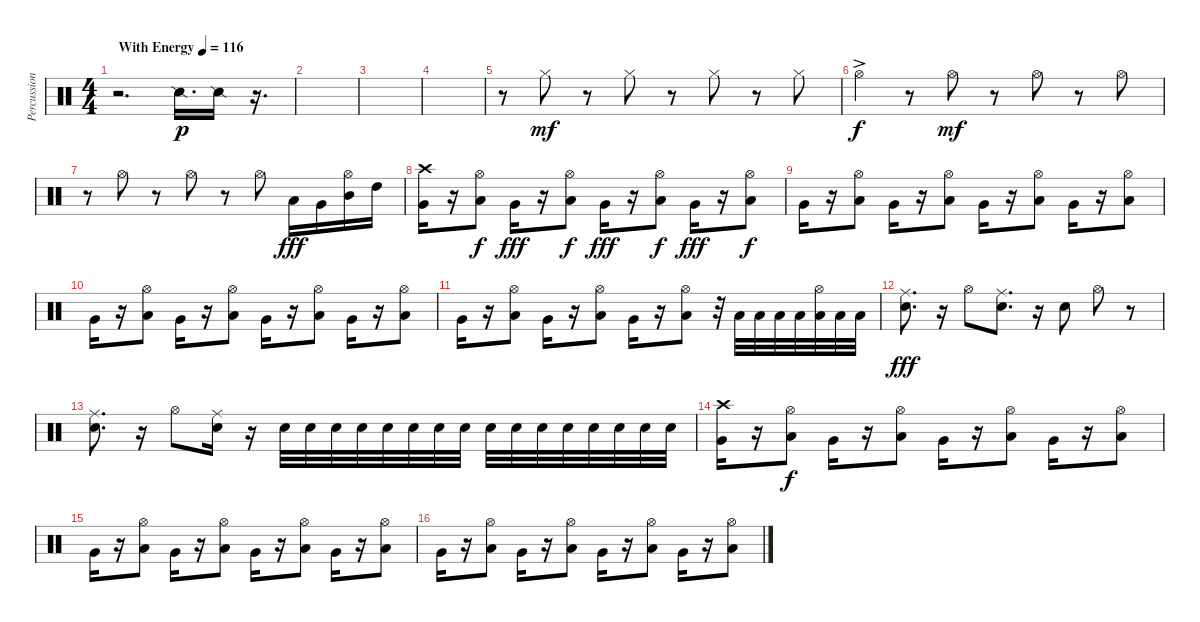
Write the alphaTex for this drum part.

\track ("Percussion (Glenn Porter)" "Percussion") {instrument percussion}
\staff {score}
\articulation defaults
\ts (4 4)
\tempo (116 "With Energy")
\clef neutral
\ks c
r.2{d dy p} "Snare (side stick) 2".16{d} "Snare (side stick) 2".16 r.16{d} |
|
|
|
r.8 "Hi-Hat (closed)".8{dy mf} r.8 "Hi-Hat (closed)".8 r.8 "Hi-Hat (closed)".8 r.8 "Hi-Hat (closed)".8 |
"Hi-Hat (open)"{ac}.4{dy f} r.8 "Hi-Hat (open)".8{dy mf} r.8 "Hi-Hat (open)".8 r.8 "Hi-Hat (open)".8 |
r.8 "Hi-Hat (open)".8 r.8 "Hi-Hat (open)".8 r.8 "Hi-Hat (open)".8 "Low Tom (hit)".16{dy fff} "Very Low Tom (hit)".16 ("Hi-Hat (open)" "Mid Tom (hit)").16 "High Tom (hit)".16 |
("Crash high (hit)" "Very Low Tom (hit)").16 r.16 ("Hi-Hat (open)" "Low Tom (hit)").8{dy f} "Very Low Tom (hit)".16{dy fff} r.16 ("Hi-Hat (open)" "Low Tom (hit)").8{dy f} "Very Low Tom (hit)".16{dy fff} r.16 ("Hi-Hat (open)" "Low Tom (hit)").8{dy f} "Very Low Tom (hit)".16{dy fff} r.16 ("Hi-Hat (open)" "Low Tom (hit)").8{dy f} |
"Very Low Tom (hit)".16 r.16 ("Hi-Hat (open)" "Low Tom (hit)").8 "Very Low Tom (hit)".16 r.16 ("Hi-Hat (open)" "Low Tom (hit)").8 "Very Low Tom (hit)".16 r.16 ("Hi-Hat (open)" "Low Tom (hit)").8 "Very Low Tom (hit)".16 r.16 ("Hi-Hat (open)" "Low Tom (hit)").8 |
"Very Low Tom (hit)".16 r.16 ("Hi-Hat (open)" "Low Tom (hit)").8 "Very Low Tom (hit)".16 r.16 ("Hi-Hat (open)" "Low Tom (hit)").8 "Very Low Tom (hit)".16 r.16 ("Hi-Hat (open)" "Low Tom (hit)").8 "Very Low Tom (hit)".16 r.16 ("Hi-Hat (open)" "Low Tom (hit)").8 |
"Very Low Tom (hit)".16 r.16 ("Hi-Hat (open)" "Low Tom (hit)").8 "Very Low Tom (hit)".16 r.16 ("Hi-Hat (open)" "Low Tom (hit)").8 "Very Low Tom (hit)".16 r.16 ("Hi-Hat (open)" "Low Tom (hit)").8 r.32 "Low Tom (hit)".32 "Low Tom (hit)".32 "Low Tom (hit)".32 "Low Tom (hit)".32 ("Hi-Hat (open)" "Low Tom (hit)").32 "Low Tom (hit)".32 "Low Tom (hit)".32 |
("Ride (middle)" "Electric Snare (hit)").8{d dy fff} r.16 "Hi-Hat (open)".8 ("Ride (middle)" "Electric Snare (hit)").8{d} r.16 "Snare (hit) 2".8 "Hi-Hat (open)".8 r.8 |
("Ride (middle)" "Electric Snare (hit)").8{d} r.16 "Hi-Hat (open)".8 ("Ride (middle)" "Electric Snare (hit)").16 r.16 "Snare (hit) 2".32 "Snare (hit) 2".32 "Snare (hit) 2".32 "Snare (hit) 2".32 "Snare (hit) 2".32 "Snare (hit) 2".32 "Snare (hit) 2".32 "Snare (hit) 2".32 "Snare (hit) 2".32 "Snare (hit) 2".32 "Snare (hit) 2".32 "Snare (hit) 2".32 "Snare (hit) 2".32 "Snare (hit) 2".32 "Snare (hit) 2".32 "Snare (hit) 2".32 |
("Crash high (hit)" "Very Low Tom (hit)").16 r.16 ("Hi-Hat (open)" "Low Tom (hit)").8{dy f} "Very Low Tom (hit)".16 r.16 ("Hi-Hat (open)" "Low Tom (hit)").8 "Very Low Tom (hit)".16 r.16 ("Hi-Hat (open)" "Low Tom (hit)").8 "Very Low Tom (hit)".16 r.16 ("Hi-Hat (open)" "Low Tom (hit)").8 |
"Very Low Tom (hit)".16 r.16 ("Hi-Hat (open)" "Low Tom (hit)").8 "Very Low Tom (hit)".16 r.16 ("Hi-Hat (open)" "Low Tom (hit)").8 "Very Low Tom (hit)".16 r.16 ("Hi-Hat (open)" "Low Tom (hit)").8 "Very Low Tom (hit)".16 r.16 ("Hi-Hat (open)" "Low Tom (hit)").8 |
"Very Low Tom (hit)".16 r.16 ("Hi-Hat (open)" "Low Tom (hit)").8 "Very Low Tom (hit)".16 r.16 ("Hi-Hat (open)" "Low Tom (hit)").8 "Very Low Tom (hit)".16 r.16 ("Hi-Hat (open)" "Low Tom (hit)").8 "Very Low Tom (hit)".16 r.16 ("Hi-Hat (open)" "Low Tom (hit)").8
